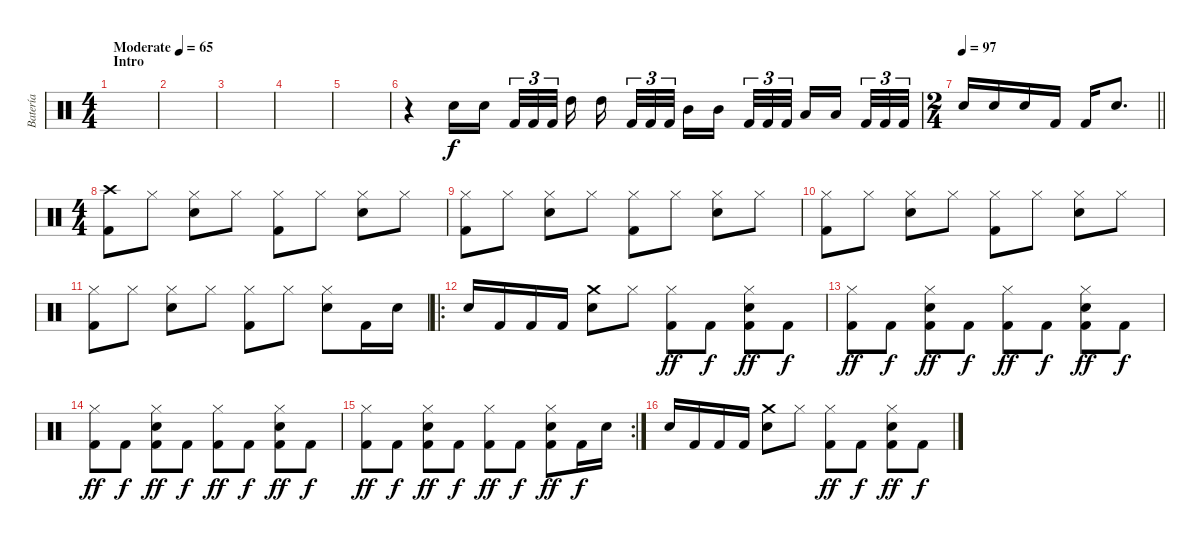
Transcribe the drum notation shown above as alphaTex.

\track ("Batería" "Batería") {instrument percussion}
\staff {score}
\articulation defaults
\ts (4 4)
\section ("" "Intro")
\tempo (65 "Moderate")
\clef neutral
\ks c
|
|
|
|
|
r.4 "Snare (hit) 2".16 "Snare (hit) 2".16{beam splitsecondary} "Kick (hit) 2".32{tu (3 2)} "Kick (hit) 2".32{tu (3 2)} "Kick (hit) 2".32{tu (3 2) beam splitsecondary} "High Tom (hit)".16 "High Tom (hit)".16{beam splitsecondary} "Kick (hit) 2".32{tu (3 2)} "Kick (hit) 2".32{tu (3 2)} "Kick (hit) 2".32{tu (3 2) beam splitsecondary} "Mid Tom (hit)".16 "Mid Tom (hit)".16 "Kick (hit) 2".32{tu (3 2)} "Kick (hit) 2".32{tu (3 2)} "Kick (hit) 2".32{tu (3 2) beam splitsecondary} "Low Tom (hit)".16 "Low Tom (hit)".16{beam splitsecondary} "Kick (hit) 2".32{tu (3 2)} "Kick (hit) 2".32{tu (3 2)} "Kick (hit) 2".32{tu (3 2)} |
\ts (2 4)
\tempo 97
\barLineRight lightlight "Snare (hit) 2".16 "Snare (hit) 2".16 "Snare (hit) 2".16 "Kick (hit) 2".16 "Kick (hit) 2".16 "Snare (hit) 2".8{d}
|
\ts (4 4)
\section ("" "")
("Crash high (hit)" "Kick (hit) 2").8 "Hi-Hat (closed)".8 ("Hi-Hat (closed)" "Snare (hit) 2").8 "Hi-Hat (closed)".8 ("Hi-Hat (closed)" "Kick (hit) 2").8 "Hi-Hat (closed)".8 ("Hi-Hat (closed)" "Snare (hit) 2").8 "Hi-Hat (closed)".8 |
("Hi-Hat (closed)" "Kick (hit) 2").8 "Hi-Hat (closed)".8 ("Hi-Hat (closed)" "Snare (hit) 2").8 "Hi-Hat (closed)".8 ("Hi-Hat (closed)" "Kick (hit) 2").8 "Hi-Hat (closed)".8 ("Hi-Hat (closed)" "Snare (hit) 2").8 "Hi-Hat (closed)".8 |
("Hi-Hat (closed)" "Kick (hit) 2").8 "Hi-Hat (closed)".8 ("Hi-Hat (closed)" "Snare (hit) 2").8 "Hi-Hat (closed)".8 ("Hi-Hat (closed)" "Kick (hit) 2").8 "Hi-Hat (closed)".8 ("Hi-Hat (closed)" "Snare (hit) 2").8 "Hi-Hat (closed)".8 |
("Hi-Hat (closed)" "Kick (hit) 2").8 "Hi-Hat (closed)".8 ("Hi-Hat (closed)" "Snare (hit) 2").8 "Hi-Hat (closed)".8 ("Hi-Hat (closed)" "Kick (hit) 2").8 "Hi-Hat (closed)".8 ("Hi-Hat (closed)" "Snare (hit) 2").8 "Kick (hit) 2".16 "Snare (hit) 2".16 |
\ro "Snare (hit) 2".16 "Kick (hit) 2".16 "Kick (hit) 2".16 "Kick (hit) 2".16
("Crash medium (hit)" "Snare (hit) 2").8 "Hi-Hat (closed)".8 ("Hi-Hat (closed)" "Kick (hit) 2").8{dy ff} "Kick (hit) 2".8{dy f} ("Hi-Hat (closed)" "Snare (hit) 2" "Kick (hit) 2").8{dy ff} "Kick (hit) 2".8{dy f} |
("Hi-Hat (closed)" "Kick (hit) 2").8{dy ff} "Kick (hit) 2".8{dy f} ("Hi-Hat (closed)" "Snare (hit) 2" "Kick (hit) 2").8{dy ff} "Kick (hit) 2".8{dy f} ("Hi-Hat (closed)" "Kick (hit) 2").8{dy ff} "Kick (hit) 2".8{dy f} ("Hi-Hat (closed)" "Snare (hit) 2" "Kick (hit) 2").8{dy ff} "Kick (hit) 2".8{dy f} |
("Hi-Hat (closed)" "Kick (hit) 2").8{dy ff} "Kick (hit) 2".8{dy f} ("Hi-Hat (closed)" "Snare (hit) 2" "Kick (hit) 2").8{dy ff} "Kick (hit) 2".8{dy f} ("Hi-Hat (closed)" "Kick (hit) 2").8{dy ff} "Kick (hit) 2".8{dy f} ("Hi-Hat (closed)" "Snare (hit) 2" "Kick (hit) 2").8{dy ff} "Kick (hit) 2".8{dy f} |
\rc 2
("Hi-Hat (closed)" "Kick (hit) 2").8{dy ff} "Kick (hit) 2".8{dy f} ("Hi-Hat (closed)" "Snare (hit) 2" "Kick (hit) 2").8{dy ff} "Kick (hit) 2".8{dy f} ("Hi-Hat (closed)" "Kick (hit) 2").8{dy ff} "Kick (hit) 2".8{dy f} ("Hi-Hat (closed)" "Snare (hit) 2" "Kick (hit) 2").8{dy ff} "Kick (hit) 2".16{dy f} "Snare (hit) 2".16 |
"Snare (hit) 2".16 "Kick (hit) 2".16 "Kick (hit) 2".16 "Kick (hit) 2".16 ("Crash medium (hit)" "Snare (hit) 2").8 "Hi-Hat (closed)".8 ("Hi-Hat (closed)" "Kick (hit) 2").8{dy ff} "Kick (hit) 2".8{dy f} ("Hi-Hat (closed)" "Snare (hit) 2" "Kick (hit) 2").8{dy ff} "Kick (hit) 2".8{dy f}
